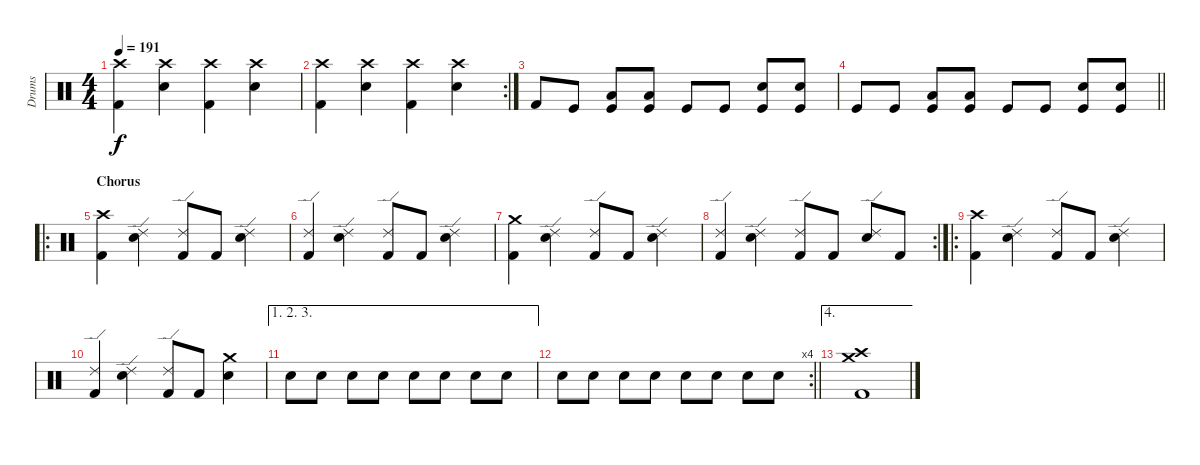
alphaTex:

\track ("Drums" "Drums") {instrument percussion}
\staff {score}
\articulation defaults
\ts (4 4)
\tempo 191
\clef neutral
\ks c
("Crash high (hit)" "Kick (hit) 2").4{dy f} ("Crash high (hit)" "Snare (hit) 2").4 ("Crash high (hit)" "Kick (hit) 2").4 ("Crash high (hit)" "Snare (hit) 2").4 |
\rc 2
("Crash high (hit)" "Kick (hit) 2").4 ("Crash high (hit)" "Snare (hit) 2").4 ("Crash high (hit)" "Kick (hit) 2").4 ("Crash high (hit)" "Snare (hit) 2").4 |
"Kick (hit) 2".8 "Kick (hit)".8 ("Low Floor Tom (hit)" "Kick (hit)").8 ("Low Floor Tom (hit)" "Kick (hit)").8 "Kick (hit)".8 "Kick (hit)".8 ("Electric Snare (hit)" "Kick (hit)").8 ("Electric Snare (hit)" "Kick (hit)").8 |
\barLineRight lightlight "Kick (hit)".8 "Kick (hit)".8
("Low Floor Tom (hit)" "Kick (hit)").8 ("Low Floor Tom (hit)" "Kick (hit)").8 "Kick (hit)".8 "Kick (hit)".8 ("Electric Snare (hit)" "Kick (hit)").8 ("Electric Snare (hit)" "Kick (hit)").8 |
\ro
\section ("" "Chorus")
("Crash high (hit)" "Kick (hit) 2").4 ("Ride (edge) 2" "Snare (hit) 2").4 ("Ride (edge) 2" "Kick (hit) 2").8 "Kick (hit) 2".8 ("Ride (edge) 2" "Snare (hit) 2").4 |
("Ride (edge) 2" "Kick (hit) 2").4 ("Ride (edge) 2" "Snare (hit) 2").4 ("Ride (edge) 2" "Kick (hit) 2").8 "Kick (hit) 2".8 ("Ride (edge) 2" "Snare (hit) 2").4 |
("Crash medium (hit)" "Kick (hit) 2").4 ("Ride (edge) 2" "Snare (hit) 2").4 ("Ride (edge) 2" "Kick (hit) 2").8 "Kick (hit) 2".8 ("Ride (edge) 2" "Snare (hit) 2").4 |
\rc 2
("Ride (edge) 2" "Kick (hit) 2").4 ("Ride (edge) 2" "Snare (hit) 2").4 ("Ride (edge) 2" "Kick (hit) 2").8 "Kick (hit) 2".8 ("Ride (edge) 2" "Snare (hit) 2").8 "Kick (hit) 2".8 |
\ro
("Crash high (hit)" "Kick (hit) 2").4 ("Ride (edge) 2" "Snare (hit) 2").4 ("Ride (edge) 2" "Kick (hit) 2").8 "Kick (hit) 2".8 ("Ride (edge) 2" "Snare (hit) 2").4 |
("Ride (edge) 2" "Kick (hit) 2").4 ("Ride (edge) 2" "Snare (hit) 2").4 ("Ride (edge) 2" "Kick (hit) 2").8 "Kick (hit) 2".8 ("Crash medium (hit)" "Snare (hit) 2").4 |
\ae (1 2 3)
"Snare (hit) 2".8{volume 6} "Snare (hit) 2".8 "Snare (hit) 2".8{volume 11} "Snare (hit) 2".8 "Snare (hit) 2".8 "Snare (hit) 2".8 "Snare (hit) 2".8 "Snare (hit) 2".8 |
\rc 4
\barLineRight lightlight "Snare (hit) 2".8 "Snare (hit) 2".8 "Snare (hit) 2".8 "Snare (hit) 2".8 "Snare (hit) 2".8 "Snare (hit) 2".8 "Snare (hit) 2".8 "Snare (hit) 2".8
|
\ae 4
("Crash medium (hit)" "Crash high (hit)" "Kick (hit) 2").1
